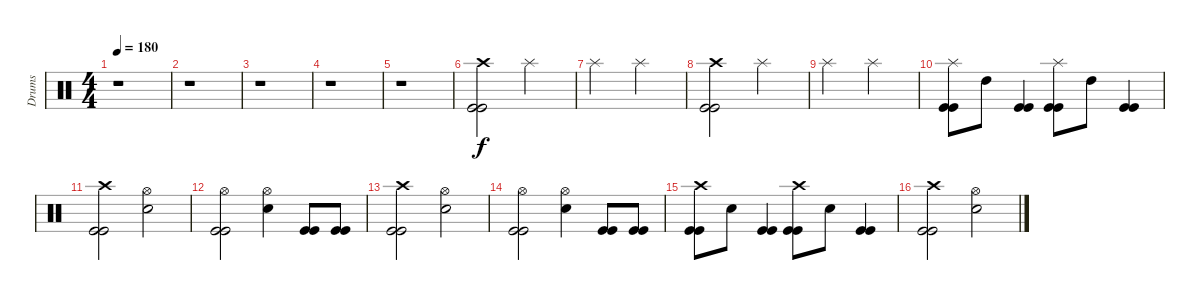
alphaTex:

\track ("Drums" "Drums") {instrument percussion}
\staff {score}
\articulation defaults
\ts (4 4)
\tempo 180
\clef neutral
\ks c
r.1{dy f} |
r.1 |
r.1 |
r.1 |
r.1 |
("Crash high (hit)" "Kick (hit)" "Kick (hit)").2 "Splash (hit)".2 |
"Splash (hit)".2 "Splash (hit)".2 |
("Crash high (hit)" "Kick (hit)" "Kick (hit)").2 "Splash (hit)".2 |
"Splash (hit)".2 "Splash (hit)".2 |
("Splash (hit)" "Kick (hit)" "Kick (hit)").8 "High Tom (hit)".8 ("Kick (hit)" "Kick (hit)").4 ("Splash (hit)" "Kick (hit)" "Kick (hit)").8 "High Tom (hit)".8 ("Kick (hit)" "Kick (hit)").4 |
("Crash high (hit)" "Kick (hit)" "Kick (hit)").2 ("Hi-Hat (open)" "Snare (hit) 2").2 |
("Hi-Hat (open)" "Kick (hit)" "Kick (hit)").2 ("Hi-Hat (open)" "Snare (hit) 2").4 ("Kick (hit)" "Kick (hit)").8 ("Kick (hit)" "Kick (hit)").8 |
("Crash high (hit)" "Kick (hit)" "Kick (hit)").2 ("Hi-Hat (open)" "Snare (hit) 2").2 |
("Hi-Hat (open)" "Kick (hit)" "Kick (hit)").2 ("Hi-Hat (open)" "Snare (hit) 2").4 ("Kick (hit)" "Kick (hit)").8 ("Kick (hit)" "Kick (hit)").8 |
("Crash high (hit)" "Kick (hit)" "Kick (hit)").8 "Snare (hit) 2".8 ("Kick (hit)" "Kick (hit)").4 ("Crash high (hit)" "Kick (hit)" "Kick (hit)").8 "Snare (hit) 2".8 ("Kick (hit)" "Kick (hit)").4 |
("Crash high (hit)" "Kick (hit)" "Kick (hit)").2 ("Hi-Hat (open)" "Snare (hit) 2").2
